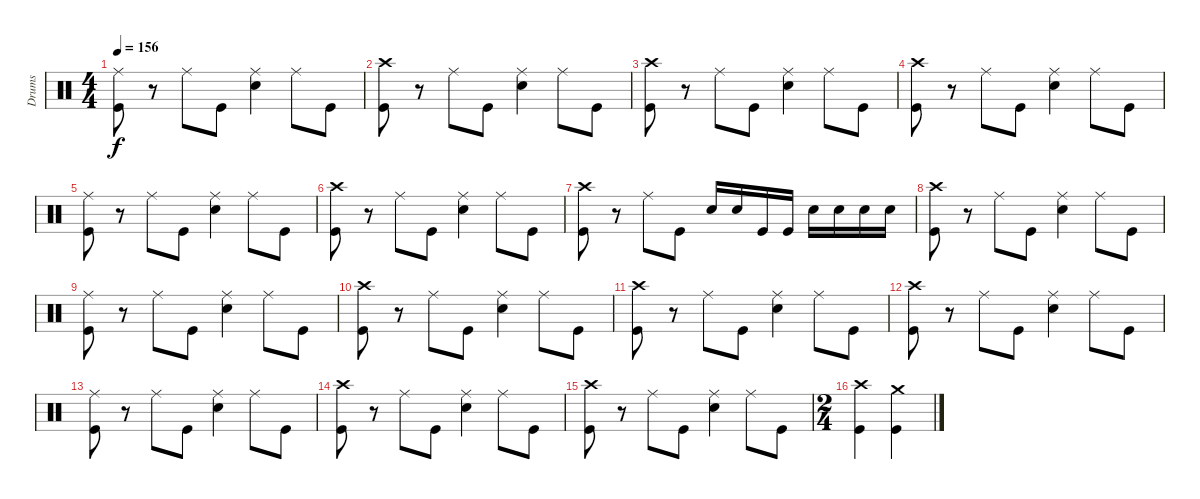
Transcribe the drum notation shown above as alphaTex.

\track ("Drums" "Drums") {instrument percussion}
\staff {score}
\articulation defaults
\ts (4 4)
\tempo 156
\clef neutral
\ks c
("Ride (middle)" "Kick (hit)").8{dy f} r.8 "Ride (middle)".8 "Kick (hit)".8 ("Ride (middle)" "Electric Snare (hit)").4 "Ride (middle)".8 "Kick (hit)".8 |
("Crash high (hit)" "Kick (hit)").8 r.8 "Ride (middle)".8 "Kick (hit)".8 ("Ride (middle)" "Electric Snare (hit)").4 "Ride (middle)".8 "Kick (hit)".8 |
("Crash high (hit)" "Kick (hit)").8 r.8 "Ride (middle)".8 "Kick (hit)".8 ("Ride (middle)" "Electric Snare (hit)").4 "Ride (middle)".8 "Kick (hit)".8 |
("Crash high (hit)" "Kick (hit)").8 r.8 "Ride (middle)".8 "Kick (hit)".8 ("Ride (middle)" "Electric Snare (hit)").4 "Ride (middle)".8 "Kick (hit)".8 |
("Ride (middle)" "Kick (hit)").8 r.8 "Ride (middle)".8 "Kick (hit)".8 ("Ride (middle)" "Electric Snare (hit)").4 "Ride (middle)".8 "Kick (hit)".8 |
("Crash high (hit)" "Kick (hit)").8 r.8 "Ride (middle)".8 "Kick (hit)".8 ("Ride (middle)" "Electric Snare (hit)").4 "Ride (middle)".8 "Kick (hit)".8 |
("Crash high (hit)" "Kick (hit)").8 r.8 "Ride (middle)".8 "Kick (hit)".8 "Electric Snare (hit)".16 "Electric Snare (hit)".16 "Kick (hit)".16 "Kick (hit)".16 "Electric Snare (hit)".16 "Electric Snare (hit)".16 "Electric Snare (hit)".16 "Electric Snare (hit)".16 |
("Crash high (hit)" "Kick (hit)").8 r.8 "Ride (middle)".8 "Kick (hit)".8 ("Ride (middle)" "Electric Snare (hit)").4 "Ride (middle)".8 "Kick (hit)".8 |
("Ride (middle)" "Kick (hit)").8 r.8 "Ride (middle)".8 "Kick (hit)".8 ("Ride (middle)" "Electric Snare (hit)").4 "Ride (middle)".8 "Kick (hit)".8 |
("Crash high (hit)" "Kick (hit)").8 r.8 "Ride (middle)".8 "Kick (hit)".8 ("Ride (middle)" "Electric Snare (hit)").4 "Ride (middle)".8 "Kick (hit)".8 |
("Crash high (hit)" "Kick (hit)").8 r.8 "Ride (middle)".8 "Kick (hit)".8 ("Ride (middle)" "Electric Snare (hit)").4 "Ride (middle)".8 "Kick (hit)".8 |
("Crash high (hit)" "Kick (hit)").8 r.8 "Ride (middle)".8 "Kick (hit)".8 ("Ride (middle)" "Electric Snare (hit)").4 "Ride (middle)".8 "Kick (hit)".8 |
("Ride (middle)" "Kick (hit)").8 r.8 "Ride (middle)".8 "Kick (hit)".8 ("Ride (middle)" "Electric Snare (hit)").4 "Ride (middle)".8 "Kick (hit)".8 |
("Crash high (hit)" "Kick (hit)").8 r.8 "Ride (middle)".8 "Kick (hit)".8 ("Ride (middle)" "Electric Snare (hit)").4 "Ride (middle)".8 "Kick (hit)".8 |
("Crash high (hit)" "Kick (hit)").8 r.8 "Ride (middle)".8 "Kick (hit)".8 ("Ride (middle)" "Electric Snare (hit)").4 "Ride (middle)".8 "Kick (hit)".8 |
\ts (2 4)
("Crash high (hit)" "Kick (hit)").4 ("Crash medium (hit)" "Kick (hit)").4
